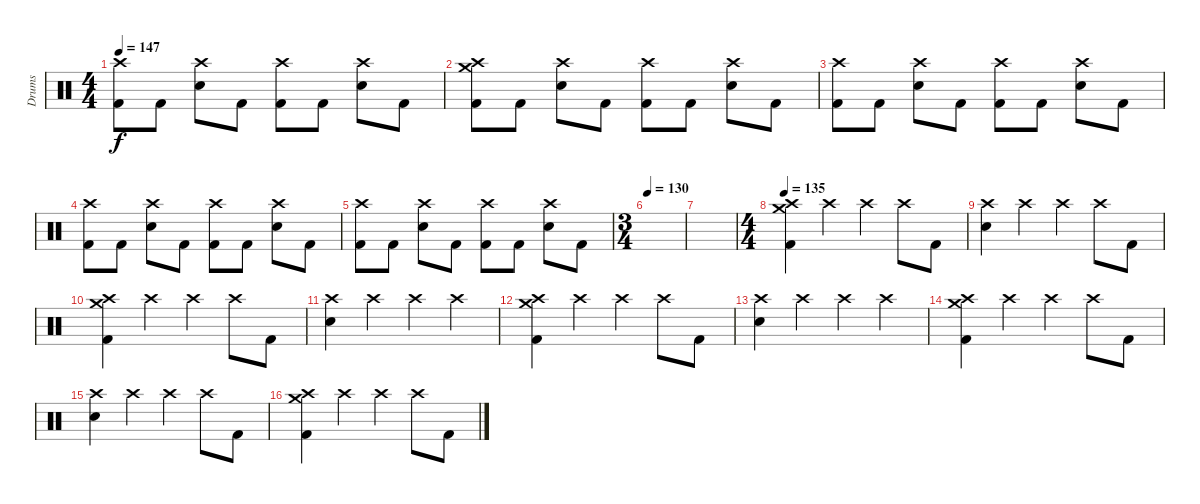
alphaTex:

\track ("Drums" "Drums") {instrument percussion}
\staff {score}
\articulation defaults
\ts (4 4)
\tempo 147
\clef neutral
\ks c
("Crash high (hit)" "Kick (hit) 2").8{dy f} "Kick (hit) 2".8 ("Crash high (hit)" "Electric Snare (hit)").8 "Kick (hit) 2".8 ("Crash high (hit)" "Kick (hit) 2").8 "Kick (hit) 2".8 ("Crash high (hit)" "Electric Snare (hit)").8 "Kick (hit) 2".8 |
("Crash high (hit)" "Crash medium (hit)" "Kick (hit) 2").8 "Kick (hit) 2".8 ("Crash high (hit)" "Electric Snare (hit)").8 "Kick (hit) 2".8 ("Crash high (hit)" "Kick (hit) 2").8 "Kick (hit) 2".8 ("Crash high (hit)" "Electric Snare (hit)").8 "Kick (hit) 2".8 |
("Crash high (hit)" "Kick (hit) 2").8 "Kick (hit) 2".8 ("Crash high (hit)" "Electric Snare (hit)").8 "Kick (hit) 2".8 ("Crash high (hit)" "Kick (hit) 2").8 "Kick (hit) 2".8 ("Crash high (hit)" "Electric Snare (hit)").8 "Kick (hit) 2".8 |
("Crash high (hit)" "Kick (hit) 2").8 "Kick (hit) 2".8 ("Crash high (hit)" "Electric Snare (hit)").8 "Kick (hit) 2".8 ("Crash high (hit)" "Kick (hit) 2").8 "Kick (hit) 2".8 ("Crash high (hit)" "Electric Snare (hit)").8 "Kick (hit) 2".8 |
("Crash high (hit)" "Kick (hit) 2").8 "Kick (hit) 2".8 ("Crash high (hit)" "Electric Snare (hit)").8 "Kick (hit) 2".8 ("Crash high (hit)" "Kick (hit) 2").8 "Kick (hit) 2".8 ("Crash high (hit)" "Electric Snare (hit)").8 "Kick (hit) 2".8 |
\ts (3 4)
\tempo 130
|
|
\ts (4 4)
\tempo 135
("Crash medium (hit)" "Crash high (hit)" "Kick (hit) 2").4 "Crash high (hit)".4 "Crash high (hit)".4 "Crash high (hit)".8 "Kick (hit) 2".8 |
("Crash high (hit)" "Electric Snare (hit)").4 "Crash high (hit)".4 "Crash high (hit)".4 "Crash high (hit)".8 "Kick (hit) 2".8 |
("Crash high (hit)" "Crash medium (hit)" "Kick (hit) 2").4 "Crash high (hit)".4 "Crash high (hit)".4 "Crash high (hit)".8 "Kick (hit) 2".8 |
("Crash high (hit)" "Electric Snare (hit)").4 "Crash high (hit)".4 "Crash high (hit)".4 "Crash high (hit)".4 |
("Crash high (hit)" "Crash medium (hit)" "Kick (hit) 2").4 "Crash high (hit)".4 "Crash high (hit)".4 "Crash high (hit)".8 "Kick (hit) 2".8 |
("Crash high (hit)" "Electric Snare (hit)").4 "Crash high (hit)".4 "Crash high (hit)".4 "Crash high (hit)".4 |
("Crash high (hit)" "Crash medium (hit)" "Kick (hit) 2").4 "Crash high (hit)".4 "Crash high (hit)".4 "Crash high (hit)".8 "Kick (hit) 2".8 |
("Crash high (hit)" "Electric Snare (hit)").4 "Crash high (hit)".4 "Crash high (hit)".4 "Crash high (hit)".8 "Kick (hit) 2".8 |
("Crash medium (hit)" "Crash high (hit)" "Kick (hit) 2").4 "Crash high (hit)".4 "Crash high (hit)".4 "Crash high (hit)".8 "Kick (hit) 2".8
